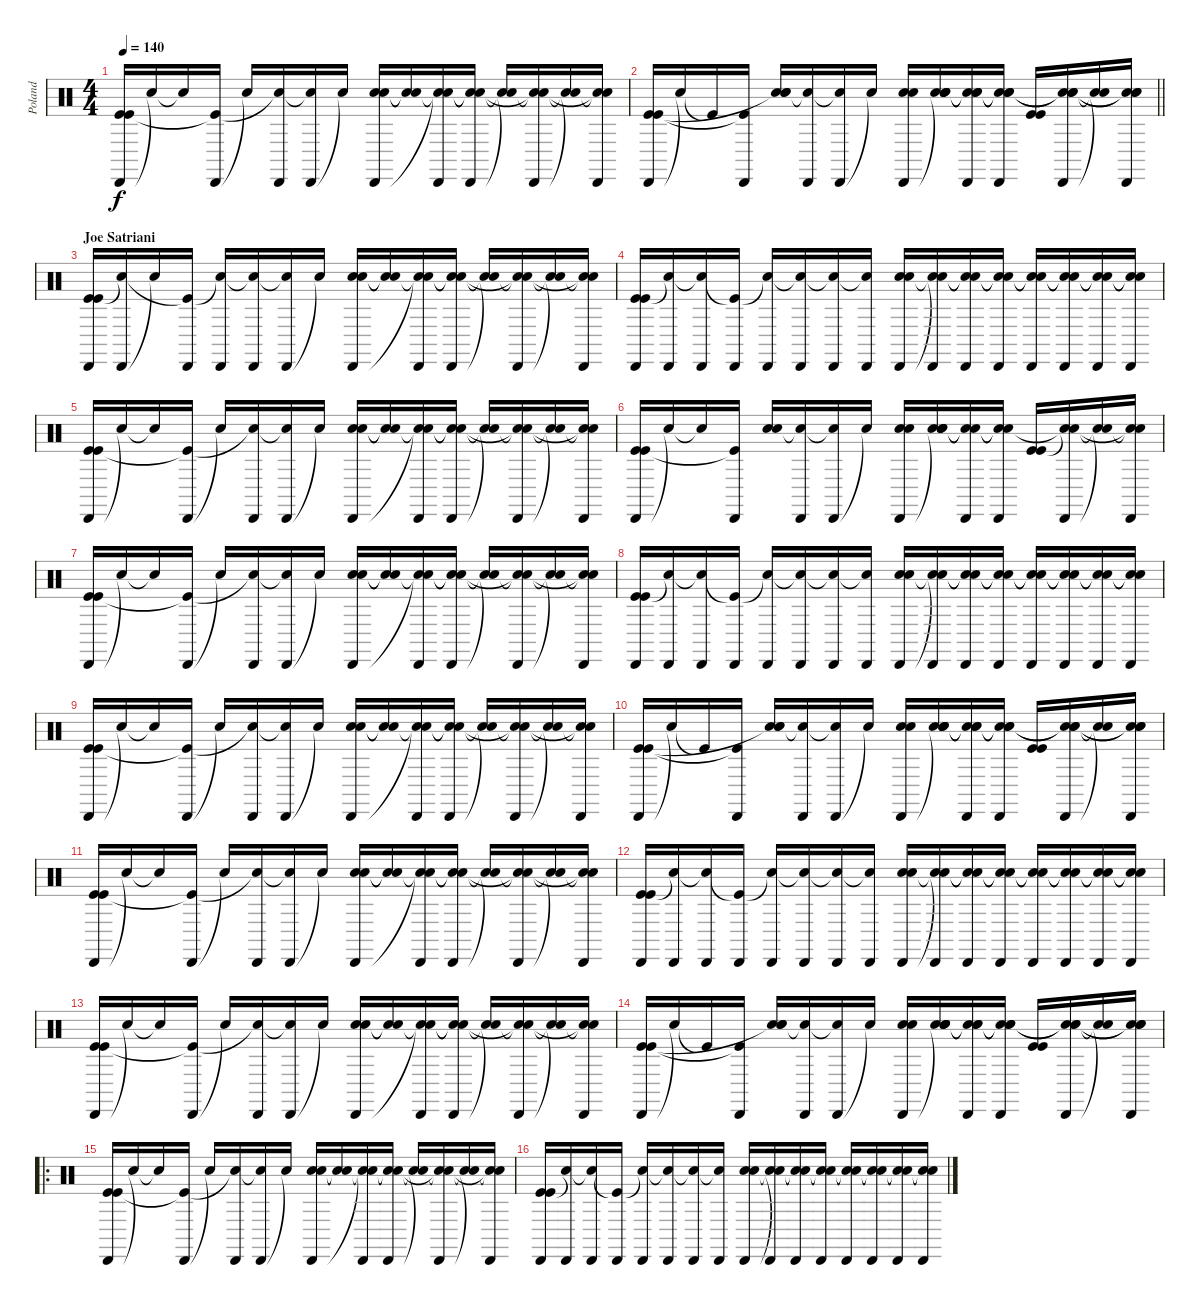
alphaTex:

\track ("Poland" "Poland") {instrument percussion}
\staff {score}
\articulation defaults
\ts (4 4)
\tempo 140
\clef neutral
\ks c
("Cabasa (hit)" "Kick (hit)" "Kick (hit)").16{dy f} "Snare (hit)"{t}.16 "Snare (hit)"{t}.16 ("Cabasa (hit)" "Kick (hit)"{t}).16 "Snare (hit)"{t}.16 ("Cabasa (hit)" "Snare (hit)"{t}).16 ("Cabasa (hit)" "Snare (hit)"{t}).16 "Snare (hit)"{t}.16 ("Hand Clap (hit)" "Hand Clap (hit)" "Cabasa (hit)").16 ("Snare (hit)"{t} "Snare (hit)"{t}).16 ("Cabasa (hit)" "Snare (hit)"{t} "Snare (hit)"{t}).16 ("Cabasa (hit)" "Snare (hit)"{t} "Snare (hit)"{t}).16 ("Snare (hit)"{t} "Snare (hit)"{t}).16 ("Cabasa (hit)" "Snare (hit)"{t} "Snare (hit)"{t}).16 ("Snare (hit)"{t} "Snare (hit)"{t}).16 ("Cabasa (hit)" "Snare (hit)"{t} "Snare (hit)"{t}).16 |
\barLineRight lightlight
("Cabasa (hit)" "Kick (hit)" "Kick (hit)").16 "Snare (hit)"{t}.16 "Kick (hit)"{t}.16 ("Cabasa (hit)" "Kick (hit)"{t}).16 ("Hand Clap (hit)" "Hand Clap (hit)" "Snare (hit)"{t}).16 ("Cabasa (hit)" "Snare (hit)"{t}).16 ("Cabasa (hit)" "Snare (hit)"{t}).16 "Snare (hit)"{t}.16 ("Hand Clap (hit)" "Hand Clap (hit)" "Cabasa (hit)").16 ("Hand Clap (hit)" "Hand Clap (hit)" "Snare (hit)"{t} "Snare (hit)").16 ("Hand Clap (hit)" "Cabasa (hit)" "Snare (hit)"{t} "Snare (hit)"{t}).16 ("Hand Clap (hit)" "Cabasa (hit)" "Snare (hit)"{t} "Snare (hit)"{t}).16 ("Kick (hit)" "Kick (hit)").16 ("Hand Clap (hit)" "Cabasa (hit)" "Snare (hit)"{t} "Snare (hit)"{t}).16 ("Snare (hit)"{t} "Snare (hit)"{t}).16 ("Hand Clap (hit)" "Cabasa (hit)" "Snare (hit)"{t} "Snare (hit)"{t}).16 |
\section ("" "Joe Satriani")
("Cabasa (hit)" "Kick (hit)" "Kick (hit)").16 ("Cabasa (hit)" "Snare (hit)"{t}).16 "Snare (hit)"{t}.16 ("Cabasa (hit)" "Kick (hit)"{t}).16 ("Cabasa (hit)" "Snare (hit)"{t}).16 ("Cabasa (hit)" "Snare (hit)"{t}).16 ("Cabasa (hit)" "Snare (hit)"{t}).16 "Snare (hit)"{t}.16 ("Hand Clap (hit)" "Hand Clap (hit)" "Cabasa (hit)").16 ("Snare (hit)"{t} "Snare (hit)"{t}).16 ("Cabasa (hit)" "Snare (hit)"{t} "Snare (hit)"{t}).16 ("Cabasa (hit)" "Snare (hit)"{t} "Snare (hit)"{t}).16 ("Snare (hit)"{t} "Snare (hit)"{t}).16 ("Cabasa (hit)" "Snare (hit)"{t} "Snare (hit)"{t}).16 ("Snare (hit)"{t} "Snare (hit)"{t}).16 ("Cabasa (hit)" "Snare (hit)"{t} "Snare (hit)"{t}).16 |
("Cabasa (hit)" "Kick (hit)" "Kick (hit)").16 ("Cabasa (hit)" "Snare (hit)"{t}).16 ("Cabasa (hit)" "Snare (hit)"{t}).16 ("Cabasa (hit)" "Kick (hit)"{t}).16 ("Cabasa (hit)" "Snare (hit)"{t}).16 ("Cabasa (hit)" "Snare (hit)"{t}).16 ("Cabasa (hit)" "Snare (hit)"{t}).16 ("Cabasa (hit)" "Snare (hit)"{t}).16 ("Hand Clap (hit)" "Hand Clap (hit)" "Cabasa (hit)").16 ("Cabasa (hit)" "Snare (hit)"{t} "Snare (hit)"{t}).16 ("Cabasa (hit)" "Snare (hit)"{t} "Snare (hit)"{t}).16 ("Cabasa (hit)" "Snare (hit)"{t} "Snare (hit)"{t}).16 ("Cabasa (hit)" "Snare (hit)"{t} "Snare (hit)"{t}).16 ("Cabasa (hit)" "Snare (hit)"{t} "Snare (hit)"{t}).16 ("Cabasa (hit)" "Snare (hit)"{t} "Snare (hit)"{t}).16 ("Cabasa (hit)" "Snare (hit)"{t} "Snare (hit)"{t}).16 |
("Cabasa (hit)" "Kick (hit)" "Kick (hit)").16 "Snare (hit)"{t}.16 "Snare (hit)"{t}.16 ("Cabasa (hit)" "Kick (hit)"{t}).16 "Snare (hit)"{t}.16 ("Cabasa (hit)" "Snare (hit)"{t}).16 ("Cabasa (hit)" "Snare (hit)"{t}).16 "Snare (hit)"{t}.16 ("Hand Clap (hit)" "Hand Clap (hit)" "Cabasa (hit)").16 ("Snare (hit)"{t} "Snare (hit)"{t}).16 ("Cabasa (hit)" "Snare (hit)"{t} "Snare (hit)"{t}).16 ("Cabasa (hit)" "Snare (hit)"{t} "Snare (hit)"{t}).16 ("Snare (hit)"{t} "Snare (hit)"{t}).16 ("Cabasa (hit)" "Snare (hit)"{t} "Snare (hit)"{t}).16 ("Snare (hit)"{t} "Snare (hit)"{t}).16 ("Cabasa (hit)" "Snare (hit)"{t} "Snare (hit)"{t}).16 |
("Cabasa (hit)" "Kick (hit)" "Kick (hit)").16 "Snare (hit)"{t}.16 "Snare (hit)"{t}.16 ("Cabasa (hit)" "Kick (hit)"{t}).16 ("Hand Clap (hit)" "Hand Clap (hit)").16 ("Cabasa (hit)" "Snare (hit)"{t}).16 ("Cabasa (hit)" "Snare (hit)"{t}).16 "Snare (hit)"{t}.16 ("Hand Clap (hit)" "Hand Clap (hit)" "Cabasa (hit)").16 ("Hand Clap (hit)" "Hand Clap (hit)" "Snare (hit)"{t} "Snare (hit)").16 ("Cabasa (hit)" "Snare (hit)"{t} "Snare (hit)"{t}).16 ("Cabasa (hit)" "Snare (hit)"{t} "Snare (hit)"{t}).16 ("Kick (hit)" "Kick (hit)").16 ("Cabasa (hit)" "Snare (hit)"{t} "Snare (hit)"{t}).16 ("Snare (hit)"{t} "Snare (hit)"{t}).16 ("Cabasa (hit)" "Snare (hit)"{t} "Snare (hit)"{t}).16 |
("Cabasa (hit)" "Kick (hit)" "Kick (hit)").16 "Snare (hit)"{t}.16 "Snare (hit)"{t}.16 ("Cabasa (hit)" "Kick (hit)"{t}).16 "Snare (hit)"{t}.16 ("Cabasa (hit)" "Snare (hit)"{t}).16 ("Cabasa (hit)" "Snare (hit)"{t}).16 "Snare (hit)"{t}.16 ("Hand Clap (hit)" "Hand Clap (hit)" "Cabasa (hit)").16 ("Snare (hit)"{t} "Snare (hit)"{t}).16 ("Cabasa (hit)" "Snare (hit)"{t} "Snare (hit)"{t}).16 ("Cabasa (hit)" "Snare (hit)"{t} "Snare (hit)"{t}).16 ("Snare (hit)"{t} "Snare (hit)"{t}).16 ("Cabasa (hit)" "Snare (hit)"{t} "Snare (hit)"{t}).16 ("Snare (hit)"{t} "Snare (hit)"{t}).16 ("Cabasa (hit)" "Snare (hit)"{t} "Snare (hit)"{t}).16 |
("Cabasa (hit)" "Kick (hit)" "Kick (hit)").16 ("Cabasa (hit)" "Snare (hit)"{t}).16 ("Cabasa (hit)" "Snare (hit)"{t}).16 ("Cabasa (hit)" "Kick (hit)"{t}).16 ("Cabasa (hit)" "Snare (hit)"{t}).16 ("Cabasa (hit)" "Snare (hit)"{t}).16 ("Cabasa (hit)" "Snare (hit)"{t}).16 ("Cabasa (hit)" "Snare (hit)"{t}).16 ("Hand Clap (hit)" "Hand Clap (hit)" "Cabasa (hit)").16 ("Cabasa (hit)" "Snare (hit)"{t} "Snare (hit)"{t}).16 ("Cabasa (hit)" "Snare (hit)"{t} "Snare (hit)"{t}).16 ("Cabasa (hit)" "Snare (hit)"{t} "Snare (hit)"{t}).16 ("Cabasa (hit)" "Snare (hit)"{t} "Snare (hit)"{t}).16 ("Cabasa (hit)" "Snare (hit)"{t} "Snare (hit)"{t}).16 ("Cabasa (hit)" "Snare (hit)"{t} "Snare (hit)"{t}).16 ("Cabasa (hit)" "Snare (hit)"{t} "Snare (hit)"{t}).16 |
("Cabasa (hit)" "Kick (hit)" "Kick (hit)").16 "Snare (hit)"{t}.16 "Snare (hit)"{t}.16 ("Cabasa (hit)" "Kick (hit)"{t}).16 "Snare (hit)"{t}.16 ("Cabasa (hit)" "Snare (hit)"{t}).16 ("Cabasa (hit)" "Snare (hit)"{t}).16 "Snare (hit)"{t}.16 ("Hand Clap (hit)" "Hand Clap (hit)" "Cabasa (hit)").16 ("Snare (hit)"{t} "Snare (hit)"{t}).16 ("Cabasa (hit)" "Snare (hit)"{t} "Snare (hit)"{t}).16 ("Cabasa (hit)" "Snare (hit)"{t} "Snare (hit)"{t}).16 ("Snare (hit)"{t} "Snare (hit)"{t}).16 ("Cabasa (hit)" "Snare (hit)"{t} "Snare (hit)"{t}).16 ("Snare (hit)"{t} "Snare (hit)"{t}).16 ("Cabasa (hit)" "Snare (hit)"{t} "Snare (hit)"{t}).16 |
("Cabasa (hit)" "Kick (hit)" "Kick (hit)").16 "Snare (hit)"{t}.16 "Kick (hit)"{t}.16 ("Cabasa (hit)" "Kick (hit)"{t}).16 ("Hand Clap (hit)" "Hand Clap (hit)" "Snare (hit)"{t}).16 ("Cabasa (hit)" "Snare (hit)"{t}).16 ("Cabasa (hit)" "Snare (hit)"{t}).16 "Snare (hit)"{t}.16 ("Hand Clap (hit)" "Hand Clap (hit)" "Cabasa (hit)").16 ("Hand Clap (hit)" "Hand Clap (hit)" "Snare (hit)"{t} "Snare (hit)").16 ("Hand Clap (hit)" "Cabasa (hit)" "Snare (hit)"{t} "Snare (hit)"{t}).16 ("Hand Clap (hit)" "Cabasa (hit)" "Snare (hit)"{t} "Snare (hit)"{t}).16 ("Kick (hit)" "Kick (hit)").16 ("Hand Clap (hit)" "Cabasa (hit)" "Snare (hit)"{t} "Snare (hit)"{t}).16 ("Snare (hit)"{t} "Snare (hit)"{t}).16 ("Hand Clap (hit)" "Cabasa (hit)" "Snare (hit)"{t} "Snare (hit)"{t}).16 |
("Cabasa (hit)" "Kick (hit)" "Kick (hit)").16 "Snare (hit)"{t}.16 "Snare (hit)"{t}.16 ("Cabasa (hit)" "Kick (hit)"{t}).16 "Snare (hit)"{t}.16 ("Cabasa (hit)" "Snare (hit)"{t}).16 ("Cabasa (hit)" "Snare (hit)"{t}).16 "Snare (hit)"{t}.16 ("Hand Clap (hit)" "Hand Clap (hit)" "Cabasa (hit)").16 ("Snare (hit)"{t} "Snare (hit)"{t}).16 ("Cabasa (hit)" "Snare (hit)"{t} "Snare (hit)"{t}).16 ("Cabasa (hit)" "Snare (hit)"{t} "Snare (hit)"{t}).16 ("Snare (hit)"{t} "Snare (hit)"{t}).16 ("Cabasa (hit)" "Snare (hit)"{t} "Snare (hit)"{t}).16 ("Snare (hit)"{t} "Snare (hit)"{t}).16 ("Cabasa (hit)" "Snare (hit)"{t} "Snare (hit)"{t}).16 |
("Cabasa (hit)" "Kick (hit)" "Kick (hit)").16 ("Cabasa (hit)" "Snare (hit)"{t}).16 ("Cabasa (hit)" "Snare (hit)"{t}).16 ("Cabasa (hit)" "Kick (hit)"{t}).16 ("Cabasa (hit)" "Snare (hit)"{t}).16 ("Cabasa (hit)" "Snare (hit)"{t}).16 ("Cabasa (hit)" "Snare (hit)"{t}).16 ("Cabasa (hit)" "Snare (hit)"{t}).16 ("Hand Clap (hit)" "Hand Clap (hit)" "Cabasa (hit)").16 ("Cabasa (hit)" "Snare (hit)"{t} "Snare (hit)"{t}).16 ("Cabasa (hit)" "Snare (hit)"{t} "Snare (hit)"{t}).16 ("Cabasa (hit)" "Snare (hit)"{t} "Snare (hit)"{t}).16 ("Cabasa (hit)" "Snare (hit)"{t} "Snare (hit)"{t}).16 ("Cabasa (hit)" "Snare (hit)"{t} "Snare (hit)"{t}).16 ("Cabasa (hit)" "Snare (hit)"{t} "Snare (hit)"{t}).16 ("Cabasa (hit)" "Snare (hit)"{t} "Snare (hit)"{t}).16 |
("Cabasa (hit)" "Kick (hit)" "Kick (hit)").16 "Snare (hit)"{t}.16 "Snare (hit)"{t}.16 ("Cabasa (hit)" "Kick (hit)"{t}).16 "Snare (hit)"{t}.16 ("Cabasa (hit)" "Snare (hit)"{t}).16 ("Cabasa (hit)" "Snare (hit)"{t}).16 "Snare (hit)"{t}.16 ("Hand Clap (hit)" "Hand Clap (hit)" "Cabasa (hit)").16 ("Snare (hit)"{t} "Snare (hit)"{t}).16 ("Cabasa (hit)" "Snare (hit)"{t} "Snare (hit)"{t}).16 ("Cabasa (hit)" "Snare (hit)"{t} "Snare (hit)"{t}).16 ("Snare (hit)"{t} "Snare (hit)"{t}).16 ("Cabasa (hit)" "Snare (hit)"{t} "Snare (hit)"{t}).16 ("Snare (hit)"{t} "Snare (hit)"{t}).16 ("Cabasa (hit)" "Snare (hit)"{t} "Snare (hit)"{t}).16 |
("Cabasa (hit)" "Kick (hit)" "Kick (hit)").16 "Snare (hit)"{t}.16 "Kick (hit)"{t}.16 ("Cabasa (hit)" "Kick (hit)"{t}).16 ("Hand Clap (hit)" "Hand Clap (hit)" "Snare (hit)"{t}).16 ("Cabasa (hit)" "Snare (hit)"{t}).16 ("Cabasa (hit)" "Snare (hit)"{t}).16 "Snare (hit)"{t}.16 ("Hand Clap (hit)" "Hand Clap (hit)" "Cabasa (hit)").16 ("Hand Clap (hit)" "Hand Clap (hit)" "Snare (hit)"{t} "Snare (hit)").16 ("Hand Clap (hit)" "Cabasa (hit)" "Snare (hit)"{t} "Snare (hit)"{t}).16 ("Hand Clap (hit)" "Cabasa (hit)" "Snare (hit)"{t} "Snare (hit)"{t}).16 ("Kick (hit)" "Kick (hit)").16 ("Hand Clap (hit)" "Cabasa (hit)" "Snare (hit)"{t} "Snare (hit)"{t}).16 ("Snare (hit)"{t} "Snare (hit)"{t}).16 ("Hand Clap (hit)" "Cabasa (hit)" "Snare (hit)"{t} "Snare (hit)"{t}).16 |
\ro
("Cabasa (hit)" "Kick (hit)" "Kick (hit)").16 "Snare (hit)"{t}.16 "Snare (hit)"{t}.16 ("Cabasa (hit)" "Kick (hit)"{t}).16 "Snare (hit)"{t}.16 ("Cabasa (hit)" "Snare (hit)"{t}).16 ("Cabasa (hit)" "Snare (hit)"{t}).16 "Snare (hit)"{t}.16 ("Hand Clap (hit)" "Hand Clap (hit)" "Cabasa (hit)").16 ("Snare (hit)"{t} "Snare (hit)"{t}).16 ("Cabasa (hit)" "Snare (hit)"{t} "Snare (hit)"{t}).16 ("Cabasa (hit)" "Snare (hit)"{t} "Snare (hit)"{t}).16 ("Snare (hit)"{t} "Snare (hit)"{t}).16 ("Cabasa (hit)" "Snare (hit)"{t} "Snare (hit)"{t}).16 ("Snare (hit)"{t} "Snare (hit)"{t}).16 ("Cabasa (hit)" "Snare (hit)"{t} "Snare (hit)"{t}).16 |
("Cabasa (hit)" "Kick (hit)" "Kick (hit)").16 ("Cabasa (hit)" "Snare (hit)"{t}).16 ("Cabasa (hit)" "Snare (hit)"{t}).16 ("Cabasa (hit)" "Kick (hit)"{t}).16 ("Cabasa (hit)" "Snare (hit)"{t}).16 ("Cabasa (hit)" "Snare (hit)"{t}).16 ("Cabasa (hit)" "Snare (hit)"{t}).16 ("Cabasa (hit)" "Snare (hit)"{t}).16 ("Hand Clap (hit)" "Hand Clap (hit)" "Cabasa (hit)").16 ("Cabasa (hit)" "Snare (hit)"{t} "Snare (hit)"{t}).16 ("Cabasa (hit)" "Snare (hit)"{t} "Snare (hit)"{t}).16 ("Cabasa (hit)" "Snare (hit)"{t} "Snare (hit)"{t}).16 ("Cabasa (hit)" "Snare (hit)"{t} "Snare (hit)"{t}).16 ("Cabasa (hit)" "Snare (hit)"{t} "Snare (hit)"{t}).16 ("Cabasa (hit)" "Snare (hit)"{t} "Snare (hit)"{t}).16 ("Cabasa (hit)" "Snare (hit)"{t} "Snare (hit)"{t}).16
